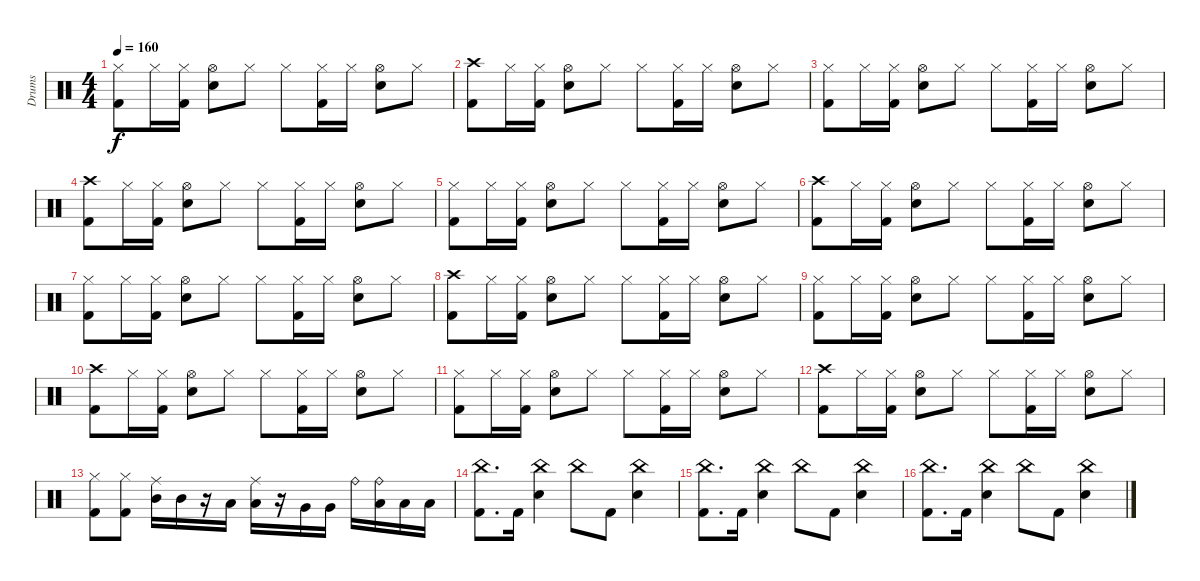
\track ("Drums" "Drums") {instrument percussion}
\staff {score}
\articulation defaults
\ts (4 4)
\tempo 160
\clef neutral
\ks c
("Hi-Hat (closed)" "Kick (hit) 2").8{dy f} "Hi-Hat (closed)".16 ("Hi-Hat (closed)" "Kick (hit) 2").16 ("Hi-Hat (open)" "Snare (hit) 2").8 "Hi-Hat (closed)".8 "Hi-Hat (closed)".8 ("Hi-Hat (closed)" "Kick (hit) 2").16 "Hi-Hat (closed)".16 ("Hi-Hat (open)" "Snare (hit) 2").8 "Hi-Hat (closed)".8 |
("Crash high (hit)" "Kick (hit) 2").8 "Hi-Hat (closed)".16 ("Hi-Hat (closed)" "Kick (hit) 2").16 ("Hi-Hat (open)" "Snare (hit) 2").8 "Hi-Hat (closed)".8 "Hi-Hat (closed)".8 ("Hi-Hat (closed)" "Kick (hit) 2").16 "Hi-Hat (closed)".16 ("Hi-Hat (open)" "Snare (hit) 2").8 "Hi-Hat (closed)".8 |
("Hi-Hat (closed)" "Kick (hit) 2").8 "Hi-Hat (closed)".16 ("Hi-Hat (closed)" "Kick (hit) 2").16 ("Hi-Hat (open)" "Snare (hit) 2").8 "Hi-Hat (closed)".8 "Hi-Hat (closed)".8 ("Hi-Hat (closed)" "Kick (hit) 2").16 "Hi-Hat (closed)".16 ("Hi-Hat (open)" "Snare (hit) 2").8 "Hi-Hat (closed)".8 |
("Crash high (hit)" "Kick (hit) 2").8 "Hi-Hat (closed)".16 ("Hi-Hat (closed)" "Kick (hit) 2").16 ("Hi-Hat (open)" "Snare (hit) 2").8 "Hi-Hat (closed)".8 "Hi-Hat (closed)".8 ("Hi-Hat (closed)" "Kick (hit) 2").16 "Hi-Hat (closed)".16 ("Hi-Hat (open)" "Snare (hit) 2").8 "Hi-Hat (closed)".8 |
("Hi-Hat (closed)" "Kick (hit) 2").8 "Hi-Hat (closed)".16 ("Hi-Hat (closed)" "Kick (hit) 2").16 ("Hi-Hat (open)" "Snare (hit) 2").8 "Hi-Hat (closed)".8 "Hi-Hat (closed)".8 ("Hi-Hat (closed)" "Kick (hit) 2").16 "Hi-Hat (closed)".16 ("Hi-Hat (open)" "Snare (hit) 2").8 "Hi-Hat (closed)".8 |
("Crash high (hit)" "Kick (hit) 2").8 "Hi-Hat (closed)".16 ("Hi-Hat (closed)" "Kick (hit) 2").16 ("Hi-Hat (open)" "Snare (hit) 2").8 "Hi-Hat (closed)".8 "Hi-Hat (closed)".8 ("Hi-Hat (closed)" "Kick (hit) 2").16 "Hi-Hat (closed)".16 ("Hi-Hat (open)" "Snare (hit) 2").8 "Hi-Hat (closed)".8 |
("Hi-Hat (closed)" "Kick (hit) 2").8 "Hi-Hat (closed)".16 ("Hi-Hat (closed)" "Kick (hit) 2").16 ("Hi-Hat (open)" "Snare (hit) 2").8 "Hi-Hat (closed)".8 "Hi-Hat (closed)".8 ("Hi-Hat (closed)" "Kick (hit) 2").16 "Hi-Hat (closed)".16 ("Hi-Hat (open)" "Snare (hit) 2").8 "Hi-Hat (closed)".8 |
("Crash high (hit)" "Kick (hit) 2").8 "Hi-Hat (closed)".16 ("Hi-Hat (closed)" "Kick (hit) 2").16 ("Hi-Hat (open)" "Snare (hit) 2").8 "Hi-Hat (closed)".8 "Hi-Hat (closed)".8 ("Hi-Hat (closed)" "Kick (hit) 2").16 "Hi-Hat (closed)".16 ("Hi-Hat (open)" "Snare (hit) 2").8 "Hi-Hat (closed)".8 |
("Hi-Hat (closed)" "Kick (hit) 2").8 "Hi-Hat (closed)".16 ("Hi-Hat (closed)" "Kick (hit) 2").16 ("Hi-Hat (open)" "Snare (hit) 2").8 "Hi-Hat (closed)".8 "Hi-Hat (closed)".8 ("Hi-Hat (closed)" "Kick (hit) 2").16 "Hi-Hat (closed)".16 ("Hi-Hat (open)" "Snare (hit) 2").8 "Hi-Hat (closed)".8 |
("Crash high (hit)" "Kick (hit) 2").8 "Hi-Hat (closed)".16 ("Hi-Hat (closed)" "Kick (hit) 2").16 ("Hi-Hat (open)" "Snare (hit) 2").8 "Hi-Hat (closed)".8 "Hi-Hat (closed)".8 ("Hi-Hat (closed)" "Kick (hit) 2").16 "Hi-Hat (closed)".16 ("Hi-Hat (open)" "Snare (hit) 2").8 "Hi-Hat (closed)".8 |
("Hi-Hat (closed)" "Kick (hit) 2").8 "Hi-Hat (closed)".16 ("Hi-Hat (closed)" "Kick (hit) 2").16 ("Hi-Hat (open)" "Snare (hit) 2").8 "Hi-Hat (closed)".8 "Hi-Hat (closed)".8 ("Hi-Hat (closed)" "Kick (hit) 2").16 "Hi-Hat (closed)".16 ("Hi-Hat (open)" "Snare (hit) 2").8 "Hi-Hat (closed)".8 |
("Crash high (hit)" "Kick (hit) 2").8 "Hi-Hat (closed)".16 ("Hi-Hat (closed)" "Kick (hit) 2").16 ("Hi-Hat (open)" "Snare (hit) 2").8 "Hi-Hat (closed)".8 "Hi-Hat (closed)".8 ("Hi-Hat (closed)" "Kick (hit) 2").16 "Hi-Hat (closed)".16 ("Hi-Hat (open)" "Snare (hit) 2").8 "Hi-Hat (closed)".8 |
("Hi-Hat (closed)" "Kick (hit) 2").8 ("Hi-Hat (closed)" "Kick (hit) 2").8 ("Mid Tom (hit)" "Ride (middle)").16 "Mid Tom (hit)".16 r.16 "Low Tom (hit)".16 ("Low Tom (hit)" "Ride (middle)").16 r.16 "Very Low Tom (hit)".16 "Very Low Tom (hit)".16 "Ride (bell)".16 ("Low Floor Tom (hit)" "Ride (bell)").16 "Low Floor Tom (hit)".16 "Low Floor Tom (hit)".16 |
("China (hit)" "Kick (hit) 2").8{d} "Kick (hit) 2".16 ("China (hit)" "Snare (hit) 2").4 "China (hit)".8 "Kick (hit) 2".8 ("China (hit)" "Snare (hit) 2").4 |
("China (hit)" "Kick (hit) 2").8{d} "Kick (hit) 2".16 ("China (hit)" "Snare (hit) 2").4 "China (hit)".8 "Kick (hit) 2".8 ("China (hit)" "Snare (hit) 2").4 |
("China (hit)" "Kick (hit) 2").8{d} "Kick (hit) 2".16 ("China (hit)" "Snare (hit) 2").4 "China (hit)".8 "Kick (hit) 2".8 ("China (hit)" "Snare (hit) 2").4
